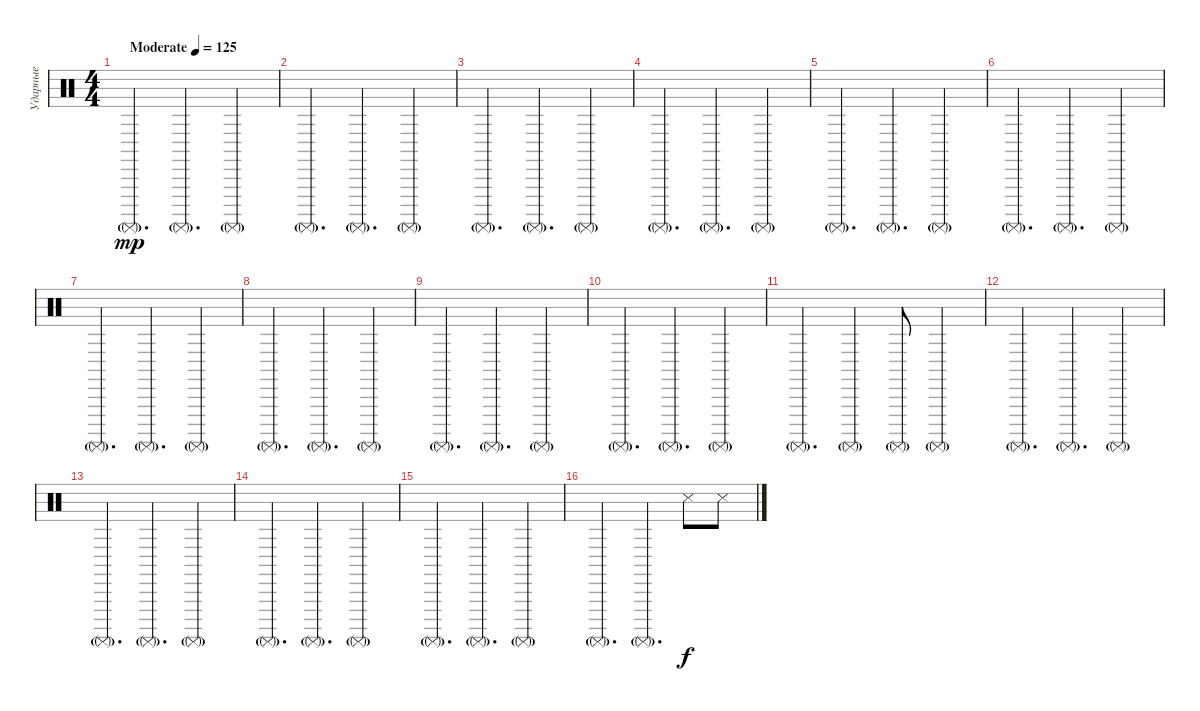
\track ("Ударные" "Ударные") {instrument percussion}
\staff {score}
\articulation defaults
\ts (4 4)
\tempo (125 "Moderate")
\clef neutral
\ks c "Surdo (mute)"{g}.4{d dy mp} "Surdo (mute)"{g}.4{d} "Surdo (mute)"{g}.4
|
"Surdo (mute)"{g}.4{d} "Surdo (mute)"{g}.4{d} "Surdo (mute)"{g}.4 |
"Surdo (mute)"{g}.4{d} "Surdo (mute)"{g}.4{d} "Surdo (mute)"{g}.4 |
"Surdo (mute)"{g}.4{d} "Surdo (mute)"{g}.4{d} "Surdo (mute)"{g}.4 |
"Surdo (mute)"{g}.4{d} "Surdo (mute)"{g}.4{d} "Surdo (mute)"{g}.4 |
"Surdo (mute)"{g}.4{d} "Surdo (mute)"{g}.4{d} "Surdo (mute)"{g}.4 |
"Surdo (mute)"{g}.4{d} "Surdo (mute)"{g}.4{d} "Surdo (mute)"{g}.4 |
"Surdo (mute)"{g}.4{d} "Surdo (mute)"{g}.4{d} "Surdo (mute)"{g}.4 |
"Surdo (mute)"{g}.4{d} "Surdo (mute)"{g}.4{d} "Surdo (mute)"{g}.4 |
"Surdo (mute)"{g}.4{d} "Surdo (mute)"{g}.4{d} "Surdo (mute)"{g}.4 |
"Surdo (mute)"{g}.4{d} "Surdo (mute)"{g}.4 "Surdo (mute)"{g}.8 "Surdo (mute)"{g}.4 |
"Surdo (mute)"{g}.4{d} "Surdo (mute)"{g}.4{d} "Surdo (mute)"{g}.4 |
"Surdo (mute)"{g}.4{d} "Surdo (mute)"{g}.4{d} "Surdo (mute)"{g}.4 |
"Surdo (mute)"{g}.4{d} "Surdo (mute)"{g}.4{d} "Surdo (mute)"{g}.4 |
"Surdo (mute)"{g}.4{d} "Surdo (mute)"{g}.4{d} "Surdo (mute)"{g}.4 |
"Surdo (mute)"{g}.4{d} "Surdo (mute)"{g}.4{d} "Snare (side stick) 3".8{dy f} "Snare (side stick) 3".8
